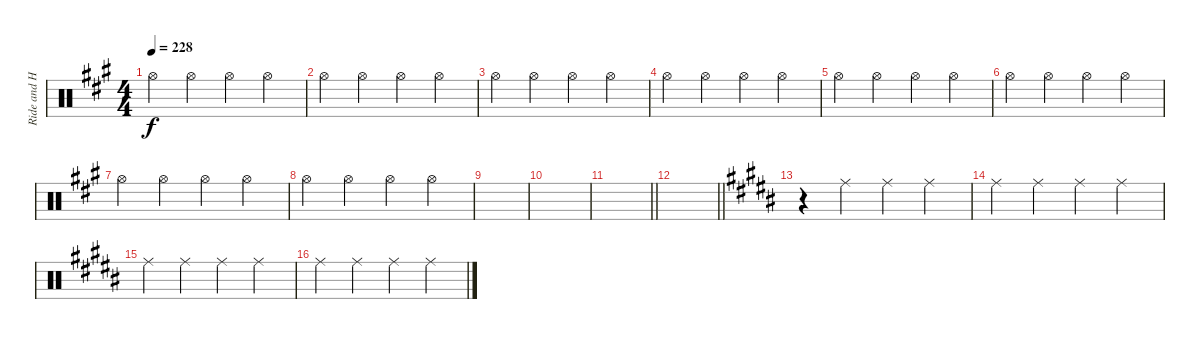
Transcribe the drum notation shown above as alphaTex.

\track ("Ride and Hi Hat" "Ride and H") {instrument percussion}
\staff {score}
\articulation defaults
\ts (4 4)
\tempo 228
\clef neutral
\ks a "Hi-Hat (open)".4{dy f} "Hi-Hat (open)".4 "Hi-Hat (open)".4 "Hi-Hat (open)".4
|
"Hi-Hat (open)".4 "Hi-Hat (open)".4 "Hi-Hat (open)".4 "Hi-Hat (open)".4 |
"Hi-Hat (open)".4 "Hi-Hat (open)".4 "Hi-Hat (open)".4 "Hi-Hat (open)".4 |
"Hi-Hat (open)".4 "Hi-Hat (open)".4 "Hi-Hat (open)".4 "Hi-Hat (open)".4 |
"Hi-Hat (open)".4 "Hi-Hat (open)".4 "Hi-Hat (open)".4 "Hi-Hat (open)".4 |
"Hi-Hat (open)".4 "Hi-Hat (open)".4 "Hi-Hat (open)".4 "Hi-Hat (open)".4 |
"Hi-Hat (open)".4 "Hi-Hat (open)".4 "Hi-Hat (open)".4 "Hi-Hat (open)".4 |
"Hi-Hat (open)".4 "Hi-Hat (open)".4 "Hi-Hat (open)".4 "Hi-Hat (open)".4 |
|
|
\barLineRight lightlight
|
\barLineRight lightlight
|
\ks b
r.4 "Ride (middle)".4 "Ride (middle)".4 "Ride (middle)".4 |
\ks g#minor "Ride (middle)".4 "Ride (middle)".4 "Ride (middle)".4 "Ride (middle)".4
|
"Ride (middle)".4 "Ride (middle)".4 "Ride (middle)".4 "Ride (middle)".4 |
\ks b "Ride (middle)".4 "Ride (middle)".4 "Ride (middle)".4 "Ride (middle)".4
